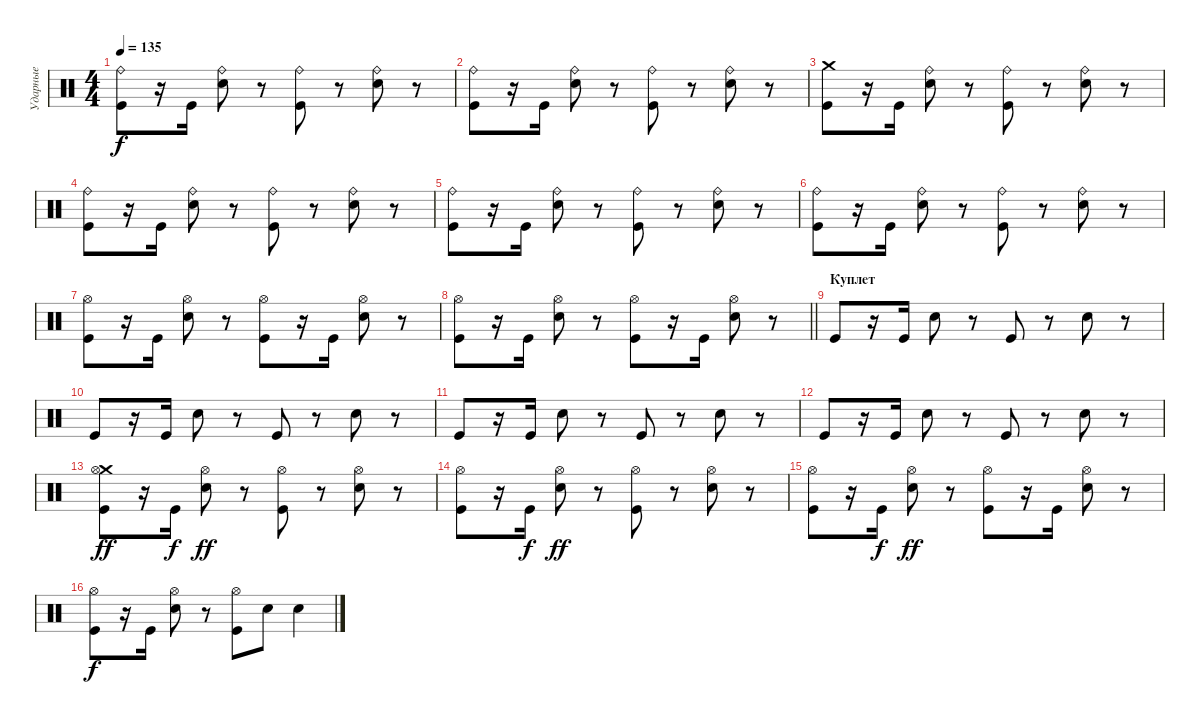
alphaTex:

\track ("Ударные" "Ударные") {instrument percussion}
\staff {score}
\articulation defaults
\ts (4 4)
\tempo 135
\clef neutral
\ks c
("Ride (bell)" "Kick (hit)").8{dy f} r.16 "Kick (hit)".16 ("Ride (bell)" "Electric Snare (hit)").8 r.8 ("Ride (bell)" "Kick (hit)").8 r.8 ("Ride (bell)" "Electric Snare (hit)").8 r.8 |
("Ride (bell)" "Kick (hit)").8 r.16 "Kick (hit)".16 ("Ride (bell)" "Electric Snare (hit)").8 r.8 ("Ride (bell)" "Kick (hit)").8 r.8 ("Ride (bell)" "Electric Snare (hit)").8 r.8 |
("Crash medium (hit)" "Kick (hit)").8 r.16 "Kick (hit)".16 ("Ride (bell)" "Electric Snare (hit)").8 r.8 ("Ride (bell)" "Kick (hit)").8 r.8 ("Ride (bell)" "Electric Snare (hit)").8 r.8 |
("Ride (bell)" "Kick (hit)").8 r.16 "Kick (hit)".16 ("Ride (bell)" "Electric Snare (hit)").8 r.8 ("Ride (bell)" "Kick (hit)").8 r.8 ("Ride (bell)" "Electric Snare (hit)").8 r.8 |
("Ride (bell)" "Kick (hit)").8 r.16 "Kick (hit)".16 ("Ride (bell)" "Electric Snare (hit)").8 r.8 ("Ride (bell)" "Kick (hit)").8 r.8 ("Ride (bell)" "Electric Snare (hit)").8 r.8 |
("Ride (bell)" "Kick (hit)").8 r.16 "Kick (hit)".16 ("Ride (bell)" "Electric Snare (hit)").8 r.8 ("Ride (bell)" "Kick (hit)").8 r.8 ("Ride (bell)" "Electric Snare (hit)").8 r.8 |
("Hi-Hat (open)" "Kick (hit)").8 r.16 "Kick (hit)".16 ("Hi-Hat (open)" "Electric Snare (hit)").8 r.8 ("Hi-Hat (open)" "Kick (hit)").8 r.16 "Kick (hit)".16 ("Hi-Hat (open)" "Electric Snare (hit)").8 r.8 |
\barLineRight lightlight
("Hi-Hat (open)" "Kick (hit)").8 r.16 "Kick (hit)".16 ("Hi-Hat (open)" "Electric Snare (hit)").8 r.8 ("Hi-Hat (open)" "Kick (hit)").8 r.16 "Kick (hit)".16 ("Hi-Hat (open)" "Electric Snare (hit)").8 r.8 |
\section ("" "Куплет")
"Kick (hit)".8 r.16 "Kick (hit)".16 "Electric Snare (hit)".8 r.8 "Kick (hit)".8 r.8 "Electric Snare (hit)".8 r.8 |
"Kick (hit)".8 r.16 "Kick (hit)".16 "Electric Snare (hit)".8 r.8 "Kick (hit)".8 r.8 "Electric Snare (hit)".8 r.8 |
"Kick (hit)".8 r.16 "Kick (hit)".16 "Electric Snare (hit)".8 r.8 "Kick (hit)".8 r.8 "Electric Snare (hit)".8 r.8 |
"Kick (hit)".8 r.16 "Kick (hit)".16 "Electric Snare (hit)".8 r.8 "Kick (hit)".8 r.8 "Electric Snare (hit)".8 r.8 |
("Crash medium (hit)" "Kick (hit)" "Hi-Hat (open)").8{dy ff} r.16 "Kick (hit)".16{dy f} ("Electric Snare (hit)" "Hi-Hat (open)").8{dy ff} r.8 ("Kick (hit)" "Hi-Hat (open)").8 r.8 ("Electric Snare (hit)" "Hi-Hat (open)").8 r.8 |
("Kick (hit)" "Hi-Hat (open)").8 r.16 "Kick (hit)".16{dy f} ("Electric Snare (hit)" "Hi-Hat (open)").8{dy ff} r.8 ("Kick (hit)" "Hi-Hat (open)").8 r.8 ("Electric Snare (hit)" "Hi-Hat (open)").8 r.8 |
("Kick (hit)" "Hi-Hat (open)").8 r.16 "Kick (hit)".16{dy f} ("Electric Snare (hit)" "Hi-Hat (open)").8{dy ff} r.8 ("Kick (hit)" "Hi-Hat (open)").8 r.16 "Kick (hit)".16 ("Electric Snare (hit)" "Hi-Hat (open)").8 r.8 |
("Kick (hit)" "Hi-Hat (open)").8{dy f} r.16 "Kick (hit)".16 ("Electric Snare (hit)" "Hi-Hat (open)").8 r.8 ("Kick (hit)" "Hi-Hat (open)").8 "Electric Snare (hit)".8 "Electric Snare (hit)".4
